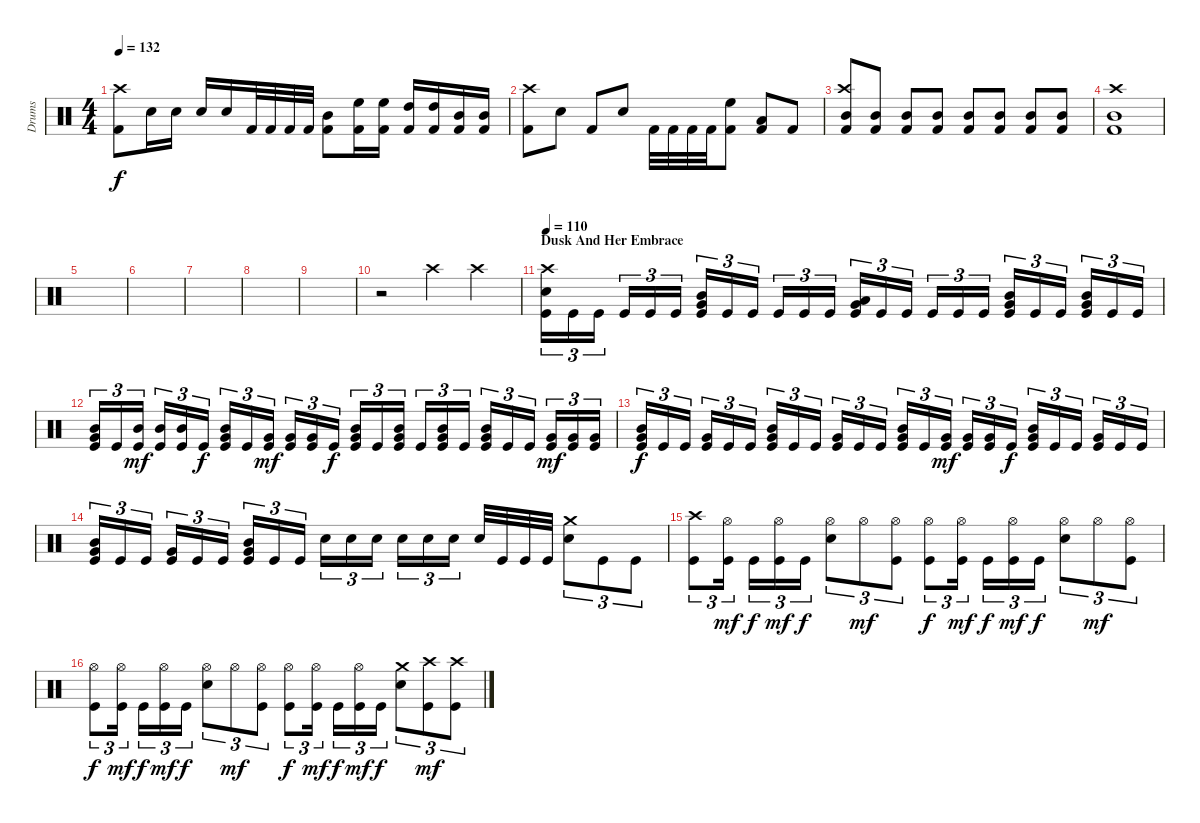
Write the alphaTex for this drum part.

\track ("Drums" "Drums") {instrument percussion}
\staff {score}
\articulation defaults
\ts (4 4)
\tempo 132
\clef neutral
\ks c
("Kick (hit) 2" "Crash high (hit)").8{dy f} "Snare (hit) 2".16 "Snare (hit) 2".16 "Snare (hit) 2".16 "Snare (hit) 2".16 "Kick (hit) 2".32 "Kick (hit) 2".32 "Kick (hit) 2".32 "Kick (hit) 2".32 ("Kick (hit) 2" "Mid Tom (hit)").8 ("Kick (hit) 2" "High Floor Tom (hit)").16 ("Kick (hit) 2" "High Floor Tom (hit)").16 ("Kick (hit) 2" "High Tom (hit)").16 ("Kick (hit) 2" "High Tom (hit)").16 ("Kick (hit) 2" "Mid Tom (hit)").16 ("Kick (hit) 2" "Mid Tom (hit)").16 |
("Kick (hit) 2" "Crash high (hit)").8 "Snare (hit) 2".8 "Kick (hit) 2".8 "Snare (hit) 2".8 "Kick (hit) 2".32 "Kick (hit) 2".32 "Kick (hit) 2".32 "Kick (hit) 2".32 ("Kick (hit) 2" "High Floor Tom (hit)").8 ("Kick (hit) 2" "Low Tom (hit)").8 "Kick (hit) 2".8 |
("Kick (hit) 2" "Mid Tom (hit)" "Crash high (hit)").8 ("Kick (hit) 2" "Mid Tom (hit)").8 ("Kick (hit) 2" "Mid Tom (hit)").8 ("Kick (hit) 2" "Mid Tom (hit)").8 ("Kick (hit) 2" "Mid Tom (hit)").8 ("Kick (hit) 2" "Mid Tom (hit)").8 ("Kick (hit) 2" "Mid Tom (hit)").8 ("Kick (hit) 2" "Mid Tom (hit)").8 |
("Kick (hit) 2" "Mid Tom (hit)" "Crash high (hit)").1 |
|
|
|
|
|
r.2 "Crash high (hit)".4 "Crash high (hit)".4 |
\section ("" "Dusk And Her Embrace")
\tempo 110
("Crash high (hit)" "Electric Snare (hit)" "Kick (hit)").16{tu (3 2)} "Kick (hit)".16{tu (3 2)} "Kick (hit)".16{tu (3 2)} "Kick (hit)".16{tu (3 2)} "Kick (hit)".16{tu (3 2)} "Kick (hit)".16{tu (3 2)} ("Mid Tom (hit)" "Very Low Tom (hit)" "Kick (hit)").16{tu (3 2)} "Kick (hit)".16{tu (3 2)} "Kick (hit)".16{tu (3 2)} "Kick (hit)".16{tu (3 2)} "Kick (hit)".16{tu (3 2)} "Kick (hit)".16{tu (3 2)} ("Low Tom (hit)" "Very Low Tom (hit)" "Kick (hit)").16{tu (3 2)} "Kick (hit)".16{tu (3 2)} "Kick (hit)".16{tu (3 2)} "Kick (hit)".16{tu (3 2)} "Kick (hit)".16{tu (3 2)} "Kick (hit)".16{tu (3 2)} ("Mid Tom (hit)" "Very Low Tom (hit)" "Kick (hit)").16{tu (3 2)} "Kick (hit)".16{tu (3 2)} "Kick (hit)".16{tu (3 2)} ("Mid Tom (hit)" "Very Low Tom (hit)" "Kick (hit)").16{tu (3 2)} "Kick (hit)".16{tu (3 2)} "Kick (hit)".16{tu (3 2)} |
("Mid Tom (hit)" "Very Low Tom (hit)" "Kick (hit)").16{tu (3 2)} "Kick (hit)".16{tu (3 2)} ("Mid Tom (hit)" "Kick (hit)").16{tu (3 2) dy mf} ("Mid Tom (hit)" "Kick (hit)").16{tu (3 2)} ("Mid Tom (hit)" "Kick (hit)").16{tu (3 2)} "Kick (hit)".16{tu (3 2) dy f} ("Mid Tom (hit)" "Very Low Tom (hit)" "Kick (hit)").16{tu (3 2)} "Kick (hit)".16{tu (3 2)} ("Very Low Tom (hit)" "Kick (hit)").16{tu (3 2) dy mf} ("Very Low Tom (hit)" "Kick (hit)").16{tu (3 2)} ("Very Low Tom (hit)" "Kick (hit)").16{tu (3 2)} "Kick (hit)".16{tu (3 2) dy f} ("Mid Tom (hit)" "Very Low Tom (hit)" "Kick (hit)").16{tu (3 2)} "Kick (hit)".16{tu (3 2)} ("Mid Tom (hit)" "Very Low Tom (hit)" "Kick (hit)").16{tu (3 2)} "Kick (hit)".16{tu (3 2)} ("Mid Tom (hit)" "Very Low Tom (hit)" "Kick (hit)").16{tu (3 2)} "Kick (hit)".16{tu (3 2)} ("Mid Tom (hit)" "Very Low Tom (hit)" "Kick (hit)").16{tu (3 2)} "Kick (hit)".16{tu (3 2)} "Kick (hit)".16{tu (3 2)} ("Very Low Tom (hit)" "Kick (hit)").16{tu (3 2) dy mf} ("Very Low Tom (hit)" "Kick (hit)").16{tu (3 2)} ("Very Low Tom (hit)" "Kick (hit)").16{tu (3 2)} |
("Mid Tom (hit)" "Very Low Tom (hit)" "Kick (hit)").16{tu (3 2) dy f} "Kick (hit)".16{tu (3 2)} "Kick (hit)".16{tu (3 2)} ("Very Low Tom (hit)" "Kick (hit)").16{tu (3 2)} "Kick (hit)".16{tu (3 2)} "Kick (hit)".16{tu (3 2)} ("Mid Tom (hit)" "Very Low Tom (hit)" "Kick (hit)").16{tu (3 2)} "Kick (hit)".16{tu (3 2)} "Kick (hit)".16{tu (3 2)} ("Very Low Tom (hit)" "Kick (hit)").16{tu (3 2)} "Kick (hit)".16{tu (3 2)} "Kick (hit)".16{tu (3 2)} ("Mid Tom (hit)" "Very Low Tom (hit)" "Kick (hit)").16{tu (3 2)} "Kick (hit)".16{tu (3 2)} ("Very Low Tom (hit)" "Kick (hit)").16{tu (3 2) dy mf} ("Very Low Tom (hit)" "Kick (hit)").16{tu (3 2)} ("Very Low Tom (hit)" "Kick (hit)").16{tu (3 2)} "Kick (hit)".16{tu (3 2) dy f} ("Mid Tom (hit)" "Very Low Tom (hit)" "Kick (hit)").16{tu (3 2)} "Kick (hit)".16{tu (3 2)} "Kick (hit)".16{tu (3 2)} ("Very Low Tom (hit)" "Kick (hit)").16{tu (3 2)} "Kick (hit)".16{tu (3 2)} "Kick (hit)".16{tu (3 2)} |
("Mid Tom (hit)" "Very Low Tom (hit)" "Kick (hit)").16{tu (3 2)} "Kick (hit)".16{tu (3 2)} "Kick (hit)".16{tu (3 2)} ("Very Low Tom (hit)" "Kick (hit)").16{tu (3 2)} "Kick (hit)".16{tu (3 2)} "Kick (hit)".16{tu (3 2)} ("Mid Tom (hit)" "Very Low Tom (hit)" "Kick (hit)").16{tu (3 2)} "Kick (hit)".16{tu (3 2)} "Kick (hit)".16{tu (3 2)} "Electric Snare (hit)".16{tu (3 2)} "Electric Snare (hit)".16{tu (3 2)} "Electric Snare (hit)".16{tu (3 2)} "Electric Snare (hit)".16{tu (3 2)} "Electric Snare (hit)".16{tu (3 2)} "Electric Snare (hit)".16{tu (3 2)} "Electric Snare (hit)".32 "Kick (hit)".32 "Kick (hit)".32 "Kick (hit)".32 ("Crash medium (hit)" "Electric Snare (hit)").8{tu (3 2)} "Kick (hit)".8{tu (3 2)} "Kick (hit)".8{tu (3 2)} |
("Crash high (hit)" "Kick (hit)").8{tu (3 2)} ("Hi-Hat (open)" "Kick (hit)").16{tu (3 2) dy mf} "Kick (hit)".16{tu (3 2) dy f} ("Hi-Hat (open)" "Kick (hit)").16{tu (3 2) dy mf} "Kick (hit)".16{tu (3 2) dy f} ("Hi-Hat (open)" "Electric Snare (hit)").8{tu (3 2)} "Hi-Hat (open)".8{tu (3 2) dy mf} ("Hi-Hat (open)" "Kick (hit)").8{tu (3 2)} ("Hi-Hat (open)" "Kick (hit)").8{tu (3 2) dy f} ("Hi-Hat (open)" "Kick (hit)").16{tu (3 2) dy mf} "Kick (hit)".16{tu (3 2) dy f} ("Hi-Hat (open)" "Kick (hit)").16{tu (3 2) dy mf} "Kick (hit)".16{tu (3 2) dy f} ("Hi-Hat (open)" "Electric Snare (hit)").8{tu (3 2)} "Hi-Hat (open)".8{tu (3 2) dy mf} ("Hi-Hat (open)" "Kick (hit)").8{tu (3 2)} |
("Hi-Hat (open)" "Kick (hit)").8{tu (3 2) dy f} ("Hi-Hat (open)" "Kick (hit)").16{tu (3 2) dy mf} "Kick (hit)".16{tu (3 2) dy f} ("Hi-Hat (open)" "Kick (hit)").16{tu (3 2) dy mf} "Kick (hit)".16{tu (3 2) dy f} ("Hi-Hat (open)" "Electric Snare (hit)").8{tu (3 2)} "Hi-Hat (open)".8{tu (3 2) dy mf} ("Hi-Hat (open)" "Kick (hit)").8{tu (3 2)} ("Hi-Hat (open)" "Kick (hit)").8{tu (3 2) dy f} ("Hi-Hat (open)" "Kick (hit)").16{tu (3 2) dy mf} "Kick (hit)".16{tu (3 2) dy f} ("Hi-Hat (open)" "Kick (hit)").16{tu (3 2) dy mf} "Kick (hit)".16{tu (3 2) dy f} ("Crash medium (hit)" "Electric Snare (hit)").8{tu (3 2)} ("Crash high (hit)" "Kick (hit)").8{tu (3 2) dy mf} ("Crash high (hit)" "Kick (hit)").8{tu (3 2)}
